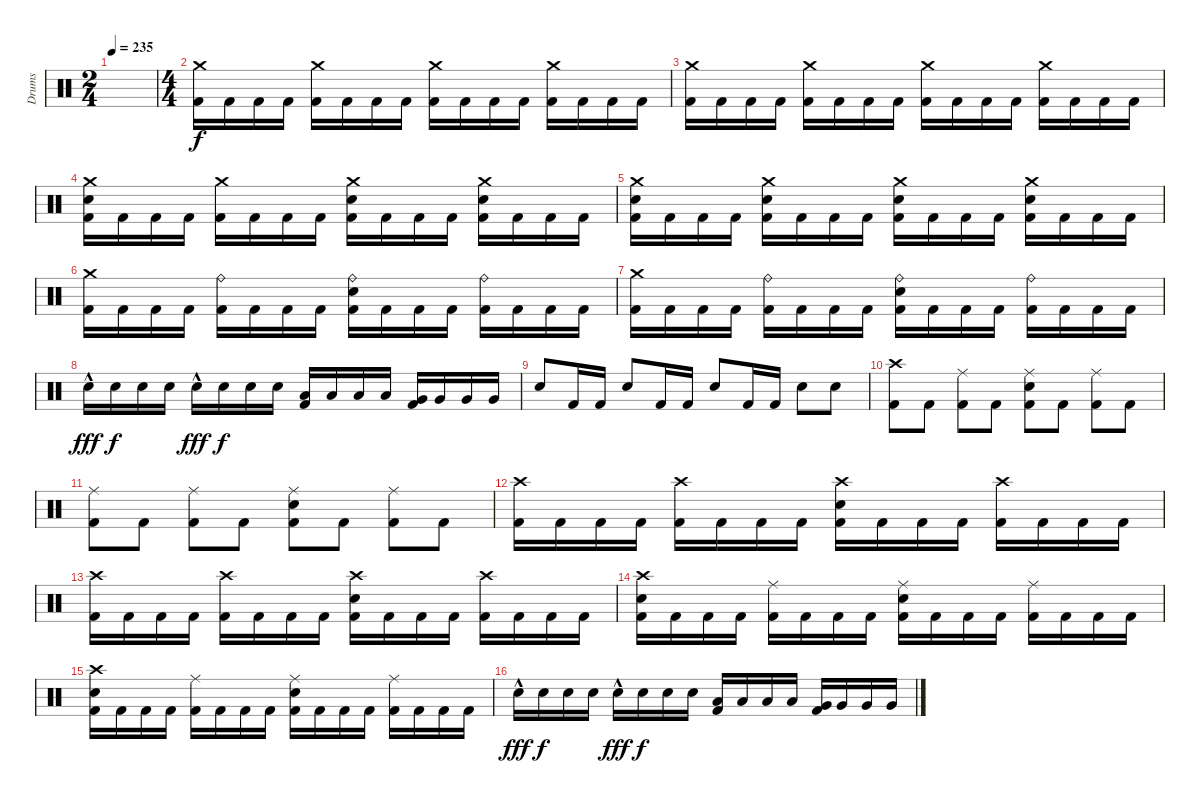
\track ("Drums" "Drums") {instrument percussion}
\staff {score}
\articulation defaults
\ts (2 4)
\tempo 235
\clef neutral
\ks c
|
\ts (4 4)
("Crash medium (hit)" "Kick (hit) 2").16 "Kick (hit) 2".16 "Kick (hit) 2".16 "Kick (hit) 2".16 ("Crash medium (hit)" "Kick (hit) 2").16 "Kick (hit) 2".16 "Kick (hit) 2".16 "Kick (hit) 2".16 ("Crash medium (hit)" "Kick (hit) 2").16 "Kick (hit) 2".16 "Kick (hit) 2".16 "Kick (hit) 2".16 ("Crash medium (hit)" "Kick (hit) 2").16 "Kick (hit) 2".16 "Kick (hit) 2".16 "Kick (hit) 2".16 |
("Crash medium (hit)" "Kick (hit) 2").16 "Kick (hit) 2".16 "Kick (hit) 2".16 "Kick (hit) 2".16 ("Crash medium (hit)" "Kick (hit) 2").16 "Kick (hit) 2".16 "Kick (hit) 2".16 "Kick (hit) 2".16 ("Crash medium (hit)" "Kick (hit) 2").16 "Kick (hit) 2".16 "Kick (hit) 2".16 "Kick (hit) 2".16 ("Crash medium (hit)" "Kick (hit) 2").16 "Kick (hit) 2".16 "Kick (hit) 2".16 "Kick (hit) 2".16 |
("Crash medium (hit)" "Electric Snare (hit)" "Kick (hit) 2").16 "Kick (hit) 2".16 "Kick (hit) 2".16 "Kick (hit) 2".16 ("Crash medium (hit)" "Kick (hit) 2").16 "Kick (hit) 2".16 "Kick (hit) 2".16 "Kick (hit) 2".16 ("Crash medium (hit)" "Electric Snare (hit)" "Kick (hit) 2").16 "Kick (hit) 2".16 "Kick (hit) 2".16 "Kick (hit) 2".16 ("Crash medium (hit)" "Electric Snare (hit)" "Kick (hit) 2").16 "Kick (hit) 2".16 "Kick (hit) 2".16 "Kick (hit) 2".16 |
("Crash medium (hit)" "Electric Snare (hit)" "Kick (hit) 2").16 "Kick (hit) 2".16 "Kick (hit) 2".16 "Kick (hit) 2".16 ("Crash medium (hit)" "Electric Snare (hit)" "Kick (hit) 2").16 "Kick (hit) 2".16 "Kick (hit) 2".16 "Kick (hit) 2".16 ("Crash medium (hit)" "Electric Snare (hit)" "Kick (hit) 2").16 "Kick (hit) 2".16 "Kick (hit) 2".16 "Kick (hit) 2".16 ("Crash medium (hit)" "Electric Snare (hit)" "Kick (hit) 2").16 "Kick (hit) 2".16 "Kick (hit) 2".16 "Kick (hit) 2".16 |
("Crash medium (hit)" "Kick (hit) 2").16 "Kick (hit) 2".16 "Kick (hit) 2".16 "Kick (hit) 2".16 ("Ride (bell)" "Kick (hit) 2").16 "Kick (hit) 2".16 "Kick (hit) 2".16 "Kick (hit) 2".16 ("Ride (bell)" "Electric Snare (hit)" "Kick (hit) 2").16 "Kick (hit) 2".16 "Kick (hit) 2".16 "Kick (hit) 2".16 ("Ride (bell)" "Kick (hit) 2").16 "Kick (hit) 2".16 "Kick (hit) 2".16 "Kick (hit) 2".16 |
("Crash medium (hit)" "Kick (hit) 2").16 "Kick (hit) 2".16 "Kick (hit) 2".16 "Kick (hit) 2".16 ("Ride (bell)" "Kick (hit) 2").16 "Kick (hit) 2".16 "Kick (hit) 2".16 "Kick (hit) 2".16 ("Ride (bell)" "Electric Snare (hit)" "Kick (hit) 2").16 "Kick (hit) 2".16 "Kick (hit) 2".16 "Kick (hit) 2".16 ("Ride (bell)" "Kick (hit) 2").16 "Kick (hit) 2".16 "Kick (hit) 2".16 "Kick (hit) 2".16 |
"Electric Snare (hit)"{hac}.16{dy fff} "Electric Snare (hit)".16{dy f} "Electric Snare (hit)".16 "Electric Snare (hit)".16 "Electric Snare (hit)"{hac}.16{dy fff} "Electric Snare (hit)".16{dy f} "Electric Snare (hit)".16 "Electric Snare (hit)".16 ("Low Tom (hit)" "Kick (hit) 2").16 "Low Tom (hit)".16 "Low Tom (hit)".16 "Low Tom (hit)".16 ("Very Low Tom (hit)" "Kick (hit) 2").16 "Very Low Tom (hit)".16 "Very Low Tom (hit)".16 "Very Low Tom (hit)".16 |
"Electric Snare (hit)".8 "Kick (hit) 2".16 "Kick (hit) 2".16 "Electric Snare (hit)".8 "Kick (hit) 2".16 "Kick (hit) 2".16 "Electric Snare (hit)".8 "Kick (hit) 2".16 "Kick (hit) 2".16 "Electric Snare (hit)".8 "Electric Snare (hit)".8 |
("Crash high (hit)" "Kick (hit) 2").8 "Kick (hit) 2".8 ("Ride (middle)" "Kick (hit) 2").8 "Kick (hit) 2".8 ("Ride (middle)" "Electric Snare (hit)" "Kick (hit) 2").8 "Kick (hit) 2".8 ("Ride (middle)" "Kick (hit) 2").8 "Kick (hit) 2".8 |
("Ride (middle)" "Kick (hit) 2").8 "Kick (hit) 2".8 ("Ride (middle)" "Kick (hit) 2").8 "Kick (hit) 2".8 ("Ride (middle)" "Electric Snare (hit)" "Kick (hit) 2").8 "Kick (hit) 2".8 ("Ride (middle)" "Kick (hit) 2").8 "Kick (hit) 2".8 |
("Crash high (hit)" "Kick (hit) 2").16 "Kick (hit) 2".16 "Kick (hit) 2".16 "Kick (hit) 2".16 ("Crash high (hit)" "Kick (hit) 2").16 "Kick (hit) 2".16 "Kick (hit) 2".16 "Kick (hit) 2".16 ("Crash high (hit)" "Electric Snare (hit)" "Kick (hit) 2").16 "Kick (hit) 2".16 "Kick (hit) 2".16 "Kick (hit) 2".16 ("Crash high (hit)" "Kick (hit) 2").16 "Kick (hit) 2".16 "Kick (hit) 2".16 "Kick (hit) 2".16 |
("Crash high (hit)" "Kick (hit) 2").16 "Kick (hit) 2".16 "Kick (hit) 2".16 "Kick (hit) 2".16 ("Crash high (hit)" "Kick (hit) 2").16 "Kick (hit) 2".16 "Kick (hit) 2".16 "Kick (hit) 2".16 ("Crash high (hit)" "Electric Snare (hit)" "Kick (hit) 2").16 "Kick (hit) 2".16 "Kick (hit) 2".16 "Kick (hit) 2".16 ("Crash high (hit)" "Kick (hit) 2").16 "Kick (hit) 2".16 "Kick (hit) 2".16 "Kick (hit) 2".16 |
("Crash high (hit)" "Electric Snare (hit)" "Kick (hit) 2").16 "Kick (hit) 2".16 "Kick (hit) 2".16 "Kick (hit) 2".16 ("Ride (middle)" "Kick (hit) 2").16 "Kick (hit) 2".16 "Kick (hit) 2".16 "Kick (hit) 2".16 ("Ride (middle)" "Electric Snare (hit)" "Kick (hit) 2").16 "Kick (hit) 2".16 "Kick (hit) 2".16 "Kick (hit) 2".16 ("Ride (middle)" "Kick (hit) 2").16 "Kick (hit) 2".16 "Kick (hit) 2".16 "Kick (hit) 2".16 |
("Crash high (hit)" "Electric Snare (hit)" "Kick (hit) 2").16 "Kick (hit) 2".16 "Kick (hit) 2".16 "Kick (hit) 2".16 ("Ride (middle)" "Kick (hit) 2").16 "Kick (hit) 2".16 "Kick (hit) 2".16 "Kick (hit) 2".16 ("Ride (middle)" "Electric Snare (hit)" "Kick (hit) 2").16 "Kick (hit) 2".16 "Kick (hit) 2".16 "Kick (hit) 2".16 ("Ride (middle)" "Kick (hit) 2").16 "Kick (hit) 2".16 "Kick (hit) 2".16 "Kick (hit) 2".16 |
"Electric Snare (hit)"{hac}.16{dy fff} "Electric Snare (hit)".16{dy f} "Electric Snare (hit)".16 "Electric Snare (hit)".16 "Electric Snare (hit)"{hac}.16{dy fff} "Electric Snare (hit)".16{dy f} "Electric Snare (hit)".16 "Electric Snare (hit)".16 ("Low Tom (hit)" "Kick (hit) 2").16 "Low Tom (hit)".16 "Low Tom (hit)".16 "Low Tom (hit)".16 ("Very Low Tom (hit)" "Kick (hit) 2").16 "Very Low Tom (hit)".16 "Very Low Tom (hit)".16 "Very Low Tom (hit)".16
